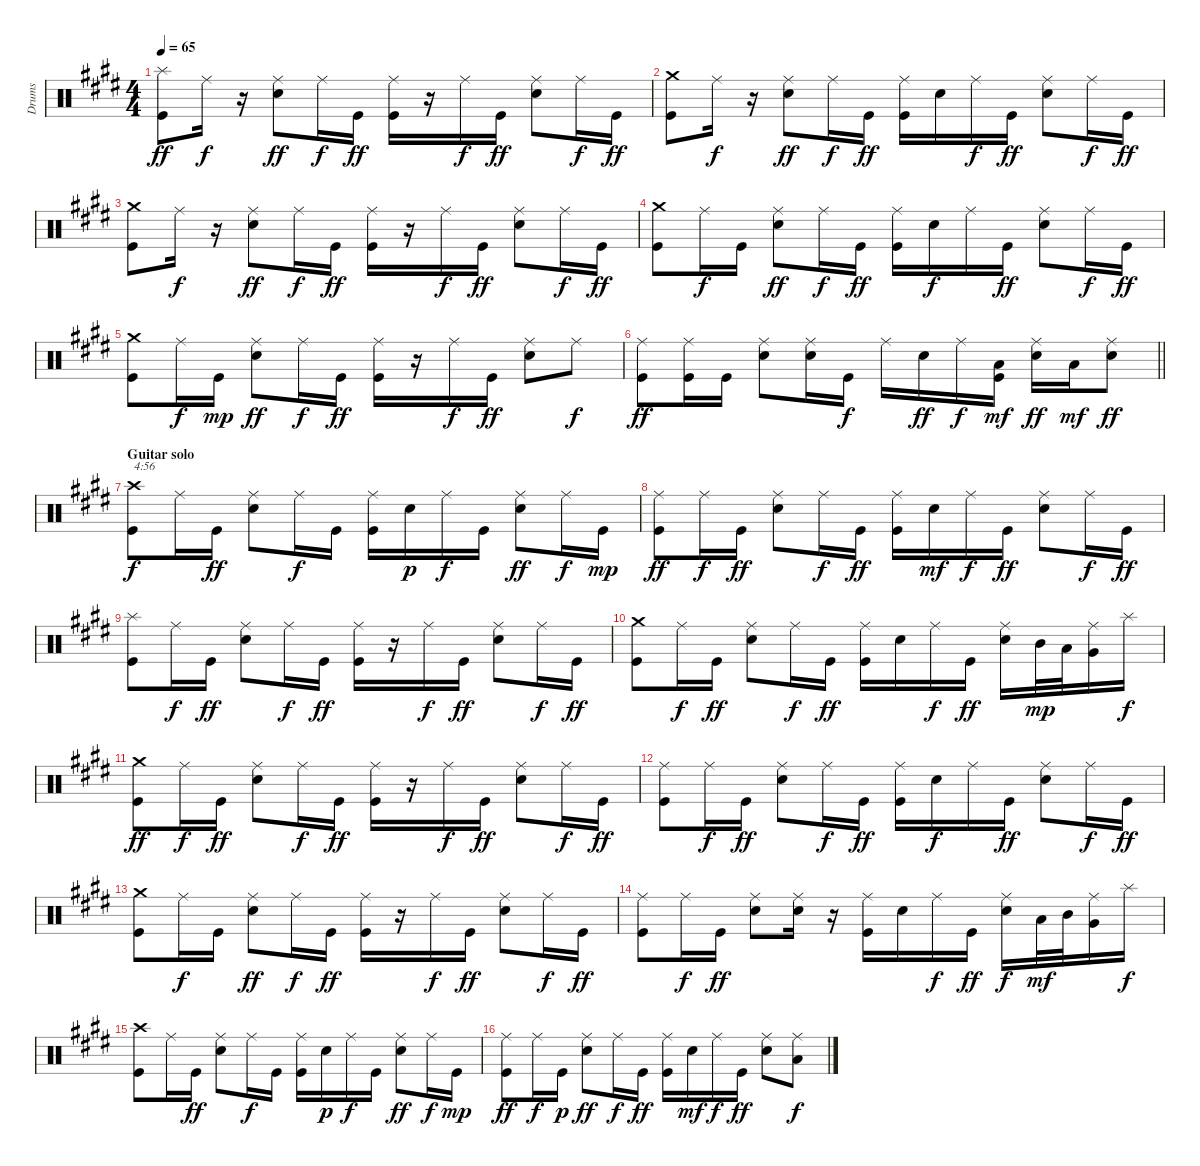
\track ("Drums" "Drums") {instrument percussion}
\staff {score}
\articulation defaults
\ts (4 4)
\tempo 65
\clef neutral
\ks c#minor
("Splash (hit)" "Kick (hit)").8{dy ff} "Ride (middle)".16{dy f} r.16 ("Ride (middle)" "Electric Snare (hit)").8{dy ff} "Ride (middle)".16{dy f} "Kick (hit)".16{dy ff} ("Ride (middle)" "Kick (hit)").16 r.16 "Ride (middle)".16{dy f} "Kick (hit)".16{dy ff} ("Ride (middle)" "Electric Snare (hit)").8 "Ride (middle)".16{dy f} "Kick (hit)".16{dy ff} |
("Crash medium (hit)" "Kick (hit)").8 "Ride (middle)".16{dy f} r.16 ("Ride (middle)" "Electric Snare (hit)").8{dy ff} "Ride (middle)".16{dy f} "Kick (hit)".16{dy ff} ("Ride (middle)" "Kick (hit)").16 "Electric Snare (hit)".16 "Ride (middle)".16{dy f} "Kick (hit)".16{dy ff} ("Ride (middle)" "Electric Snare (hit)").8 "Ride (middle)".16{dy f} "Kick (hit)".16{dy ff} |
("Crash medium (hit)" "Kick (hit)").8 "Ride (middle)".16{dy f} r.16 ("Ride (middle)" "Electric Snare (hit)").8{dy ff} "Ride (middle)".16{dy f} "Kick (hit)".16{dy ff} ("Ride (middle)" "Kick (hit)").16 r.16 "Ride (middle)".16{dy f} "Kick (hit)".16{dy ff} ("Ride (middle)" "Electric Snare (hit)").8 "Ride (middle)".16{dy f} "Kick (hit)".16{dy ff} |
("Crash medium (hit)" "Kick (hit)").8 "Ride (middle)".16{dy f} "Kick (hit)".16 ("Ride (middle)" "Electric Snare (hit)").8{dy ff} "Ride (middle)".16{dy f} "Kick (hit)".16{dy ff} ("Ride (middle)" "Kick (hit)").16 "Electric Snare (hit)".16{dy f} "Ride (middle)".16 "Kick (hit)".16{dy ff} ("Ride (middle)" "Electric Snare (hit)").8 "Ride (middle)".16{dy f} "Kick (hit)".16{dy ff} |
("Crash medium (hit)" "Kick (hit)").8 "Ride (middle)".16{dy f} "Kick (hit)".16{dy mp} ("Ride (middle)" "Electric Snare (hit)").8{dy ff} "Ride (middle)".16{dy f} "Kick (hit)".16{dy ff} ("Ride (middle)" "Kick (hit)").16 r.16 "Ride (middle)".16{dy f} "Kick (hit)".16{dy ff} ("Ride (middle)" "Electric Snare (hit)").8 "Ride (middle)".8{dy f} |
\barLineRight lightlight
("Ride (middle)" "Kick (hit)").8{dy ff} ("Ride (middle)" "Kick (hit)").16 "Kick (hit)".16 ("Ride (middle)" "Electric Snare (hit)").8 ("Ride (middle)" "Electric Snare (hit)").16 "Kick (hit)".16{dy f} "Ride (middle)".16 "Electric Snare (hit)".16{dy ff} "Ride (middle)".16{dy f} ("Low Tom (hit)" "Kick (hit)").16{dy mf} ("Ride (middle)" "Electric Snare (hit)").16{dy ff} "Low Tom (hit)".16{dy mf} ("Ride (middle)" "Electric Snare (hit)").8{dy ff} |
\section ("" "Guitar solo")
("Crash high (hit)" "Kick (hit)").8{txt "4:56" dy f} "Ride (middle)".16 "Kick (hit)".16{dy ff} ("Ride (middle)" "Electric Snare (hit)").8 "Ride (middle)".16{dy f} "Kick (hit)".16 ("Ride (middle)" "Kick (hit)").16 "Electric Snare (hit)".16{dy p} "Ride (middle)".16{dy f} "Kick (hit)".16 ("Ride (middle)" "Electric Snare (hit)").8{dy ff} "Ride (middle)".16{dy f} "Kick (hit)".16{dy mp} |
("Ride (middle)" "Kick (hit)").8{dy ff} "Ride (middle)".16{dy f} "Kick (hit)".16{dy ff} ("Ride (middle)" "Electric Snare (hit)").8 "Ride (middle)".16{dy f} "Kick (hit)".16{dy ff} ("Ride (middle)" "Kick (hit)").16 "Electric Snare (hit)".16{dy mf} "Ride (middle)".16{dy f} "Kick (hit)".16{dy ff} ("Ride (middle)" "Electric Snare (hit)").8 "Ride (middle)".16{dy f} "Kick (hit)".16{dy ff} |
("Splash (hit)" "Kick (hit)").8 "Ride (middle)".16{dy f} "Kick (hit)".16{dy ff} ("Ride (middle)" "Electric Snare (hit)").8 "Ride (middle)".16{dy f} "Kick (hit)".16{dy ff} ("Ride (middle)" "Kick (hit)").16 r.16 "Ride (middle)".16{dy f} "Kick (hit)".16{dy ff} ("Ride (middle)" "Electric Snare (hit)").8 "Ride (middle)".16{dy f} "Kick (hit)".16{dy ff} |
("Crash medium (hit)" "Kick (hit)").8 "Ride (middle)".16{dy f} "Kick (hit)".16{dy ff} ("Ride (middle)" "Electric Snare (hit)").8 "Ride (middle)".16{dy f} "Kick (hit)".16{dy ff} ("Ride (middle)" "Kick (hit)").16 "Electric Snare (hit)".16 "Ride (middle)".16{dy f} "Kick (hit)".16{dy ff} ("Ride (middle)" "Electric Snare (hit)").16 "Mid Tom (hit)".32{dy mp} "Low Tom (hit)".32 ("Ride (middle)" "Very Low Tom (hit)").16 "Splash (hit)".16{dy f} |
("Crash medium (hit)" "Kick (hit)").8{dy ff} "Ride (middle)".16{dy f} "Kick (hit)".16{dy ff} ("Ride (middle)" "Electric Snare (hit)").8 "Ride (middle)".16{dy f} "Kick (hit)".16{dy ff} ("Ride (middle)" "Kick (hit)").16 r.16 "Ride (middle)".16{dy f} "Kick (hit)".16{dy ff} ("Ride (middle)" "Electric Snare (hit)").8 "Ride (middle)".16{dy f} "Kick (hit)".16{dy ff} |
("Ride (middle)" "Kick (hit)").8 "Ride (middle)".16{dy f} "Kick (hit)".16{dy ff} ("Ride (middle)" "Electric Snare (hit)").8 "Ride (middle)".16{dy f} "Kick (hit)".16{dy ff} ("Ride (middle)" "Kick (hit)").16 "Electric Snare (hit)".16{dy f} "Ride (middle)".16 "Kick (hit)".16{dy ff} ("Ride (middle)" "Electric Snare (hit)").8 "Ride (middle)".16{dy f} "Kick (hit)".16{dy ff} |
("Crash medium (hit)" "Kick (hit)").8 "Ride (middle)".16{dy f} "Kick (hit)".16 ("Ride (middle)" "Electric Snare (hit)").8{dy ff} "Ride (middle)".16{dy f} "Kick (hit)".16{dy ff} ("Ride (middle)" "Kick (hit)").16 r.16 "Ride (middle)".16{dy f} "Kick (hit)".16{dy ff} ("Ride (middle)" "Electric Snare (hit)").8 "Ride (middle)".16{dy f} "Kick (hit)".16{dy ff} |
("Ride (middle)" "Kick (hit)").8 "Ride (middle)".16{dy f} "Kick (hit)".16{dy ff} ("Ride (middle)" "Electric Snare (hit)").8 ("Ride (middle)" "Electric Snare (hit)").16 r.16 ("Ride (middle)" "Kick (hit)").16 "Electric Snare (hit)".16 "Ride (middle)".16{dy f} "Kick (hit)".16{dy ff} ("Ride (middle)" "Electric Snare (hit)").16{dy f} "Low Tom (hit)".32{dy mf} "Mid Tom (hit)".32 ("Ride (middle)" "Very Low Tom (hit)").16 "Splash (hit)".16{dy f} |
("Crash high (hit)" "Kick (hit)").8 "Ride (middle)".16 "Kick (hit)".16{dy ff} ("Ride (middle)" "Electric Snare (hit)").8 "Ride (middle)".16{dy f} "Kick (hit)".16 ("Ride (middle)" "Kick (hit)").16 "Electric Snare (hit)".16{dy p} "Ride (middle)".16{dy f} "Kick (hit)".16 ("Ride (middle)" "Electric Snare (hit)").8{dy ff} "Ride (middle)".16{dy f} "Kick (hit)".16{dy mp} |
("Ride (middle)" "Kick (hit)").8{dy ff} "Ride (middle)".16{dy f} "Kick (hit)".16{dy p} ("Ride (middle)" "Electric Snare (hit)").8{dy ff} "Ride (middle)".16{dy f} "Kick (hit)".16{dy ff} ("Ride (middle)" "Kick (hit)").16 "Electric Snare (hit)".16{dy mf} "Ride (middle)".16{dy f} "Kick (hit)".16{dy ff} ("Ride (middle)" "Electric Snare (hit)").8 ("Ride (middle)" "Low Tom (hit)").8{dy f}
